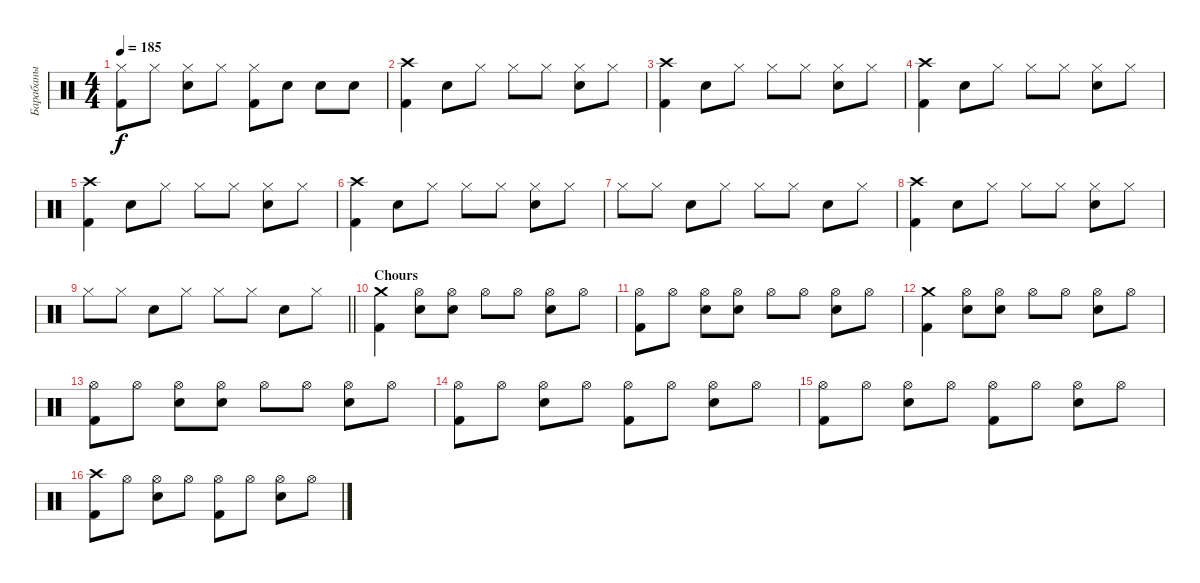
\track ("Барабаны" "Барабаны") {instrument percussion}
\staff {score}
\articulation defaults
\ts (4 4)
\tempo 185
\clef neutral
\ks c
("Hi-Hat (closed)" "Kick (hit) 2").8{dy f} "Hi-Hat (closed)".8 ("Hi-Hat (closed)" "Snare (hit) 2").8 "Hi-Hat (closed)".8 ("Hi-Hat (closed)" "Kick (hit) 2").8 "Snare (hit) 2".8 "Snare (hit) 2".8 "Snare (hit) 2".8 |
("Crash high (hit)" "Kick (hit) 2").4 "Snare (hit) 2".8 "Hi-Hat (closed)".8 "Hi-Hat (closed)".8 "Hi-Hat (closed)".8 ("Hi-Hat (closed)" "Snare (hit) 2").8 "Hi-Hat (closed)".8 |
("Crash high (hit)" "Kick (hit) 2").4 "Snare (hit) 2".8 "Hi-Hat (closed)".8 "Hi-Hat (closed)".8 "Hi-Hat (closed)".8 ("Hi-Hat (closed)" "Snare (hit) 2").8 "Hi-Hat (closed)".8 |
("Crash high (hit)" "Kick (hit) 2").4 "Snare (hit) 2".8 "Hi-Hat (closed)".8 "Hi-Hat (closed)".8 "Hi-Hat (closed)".8 ("Hi-Hat (closed)" "Snare (hit) 2").8 "Hi-Hat (closed)".8 |
("Crash high (hit)" "Kick (hit) 2").4 "Snare (hit) 2".8 "Hi-Hat (closed)".8 "Hi-Hat (closed)".8 "Hi-Hat (closed)".8 ("Hi-Hat (closed)" "Snare (hit) 2").8 "Hi-Hat (closed)".8 |
("Crash high (hit)" "Kick (hit) 2").4 "Snare (hit) 2".8 "Hi-Hat (closed)".8 "Hi-Hat (closed)".8 "Hi-Hat (closed)".8 ("Hi-Hat (closed)" "Snare (hit) 2").8 "Hi-Hat (closed)".8 |
"Hi-Hat (closed)".8 "Hi-Hat (closed)".8 "Snare (hit) 2".8 "Hi-Hat (closed)".8 "Hi-Hat (closed)".8 "Hi-Hat (closed)".8 "Snare (hit) 2".8 "Hi-Hat (closed)".8 |
("Crash high (hit)" "Kick (hit) 2").4 "Snare (hit) 2".8 "Hi-Hat (closed)".8 "Hi-Hat (closed)".8 "Hi-Hat (closed)".8 ("Hi-Hat (closed)" "Snare (hit) 2").8 "Hi-Hat (closed)".8 |
\barLineRight lightlight "Hi-Hat (closed)".8 "Hi-Hat (closed)".8 "Snare (hit) 2".8 "Hi-Hat (closed)".8 "Hi-Hat (closed)".8 "Hi-Hat (closed)".8 "Snare (hit) 2".8 "Hi-Hat (closed)".8
|
\section ("" "Chours")
("Crash medium (hit)" "Kick (hit) 2").4 ("Hi-Hat (open)" "Snare (hit) 2").8 ("Hi-Hat (open)" "Snare (hit) 2").8 "Hi-Hat (open)".8 "Hi-Hat (open)".8 ("Hi-Hat (open)" "Snare (hit) 2").8 "Hi-Hat (open)".8 |
("Hi-Hat (open)" "Kick (hit) 2").8 "Hi-Hat (open)".8 ("Hi-Hat (open)" "Snare (hit) 2").8 ("Hi-Hat (open)" "Snare (hit) 2").8 "Hi-Hat (open)".8 "Hi-Hat (open)".8 ("Hi-Hat (open)" "Snare (hit) 2").8 "Hi-Hat (open)".8 |
("Crash medium (hit)" "Kick (hit) 2").4 ("Hi-Hat (open)" "Snare (hit) 2").8 ("Hi-Hat (open)" "Snare (hit) 2").8 "Hi-Hat (open)".8 "Hi-Hat (open)".8 ("Hi-Hat (open)" "Snare (hit) 2").8 "Hi-Hat (open)".8 |
("Hi-Hat (open)" "Kick (hit) 2").8 "Hi-Hat (open)".8 ("Hi-Hat (open)" "Snare (hit) 2").8 ("Hi-Hat (open)" "Snare (hit) 2").8 "Hi-Hat (open)".8 "Hi-Hat (open)".8 ("Hi-Hat (open)" "Snare (hit) 2").8 "Hi-Hat (open)".8 |
("Hi-Hat (open)" "Kick (hit) 2").8 "Hi-Hat (open)".8 ("Hi-Hat (open)" "Snare (hit) 2").8 "Hi-Hat (open)".8 ("Hi-Hat (open)" "Kick (hit) 2").8 "Hi-Hat (open)".8 ("Hi-Hat (open)" "Snare (hit) 2").8 "Hi-Hat (open)".8 |
("Hi-Hat (open)" "Kick (hit) 2").8 "Hi-Hat (open)".8 ("Hi-Hat (open)" "Snare (hit) 2").8 "Hi-Hat (open)".8 ("Hi-Hat (open)" "Kick (hit) 2").8 "Hi-Hat (open)".8 ("Hi-Hat (open)" "Snare (hit) 2").8 "Hi-Hat (open)".8 |
("Crash high (hit)" "Kick (hit) 2").8 "Hi-Hat (open)".8 ("Hi-Hat (open)" "Snare (hit) 2").8 "Hi-Hat (open)".8 ("Hi-Hat (open)" "Kick (hit) 2").8 "Hi-Hat (open)".8 ("Hi-Hat (open)" "Snare (hit) 2").8 "Hi-Hat (open)".8
